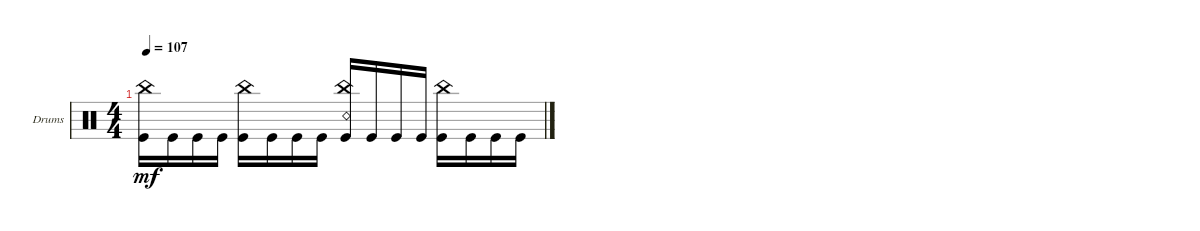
\defaultSystemsLayout 4
\bracketExtendMode groupsimilarinstruments
\firstSystemTrackNameOrientation horizontal
\otherSystemsTrackNameOrientation horizontal
\track ("Drumkit" "Drums") {instrument percussion}
\staff {score}
\articulation defaults
\ts (4 4)
\tempo 107
\clef neutral
\scale
0.333333
\ks c
("Kick (hit)" "China (hit)").16{dy mf} "Kick (hit)".16 "Kick (hit)".16 "Kick (hit)".16 ("Kick (hit)" "China (hit)").16 "Kick (hit)".16 "Kick (hit)".16 "Kick (hit)".16 ("Kick (hit)" "Snare (rim shot)" "China (hit)").16 "Kick (hit)".16 "Kick (hit)".16 "Kick (hit)".16 ("Kick (hit)" "China (hit)").16 "Kick (hit)".16 "Kick (hit)".16 "Kick (hit)".16
